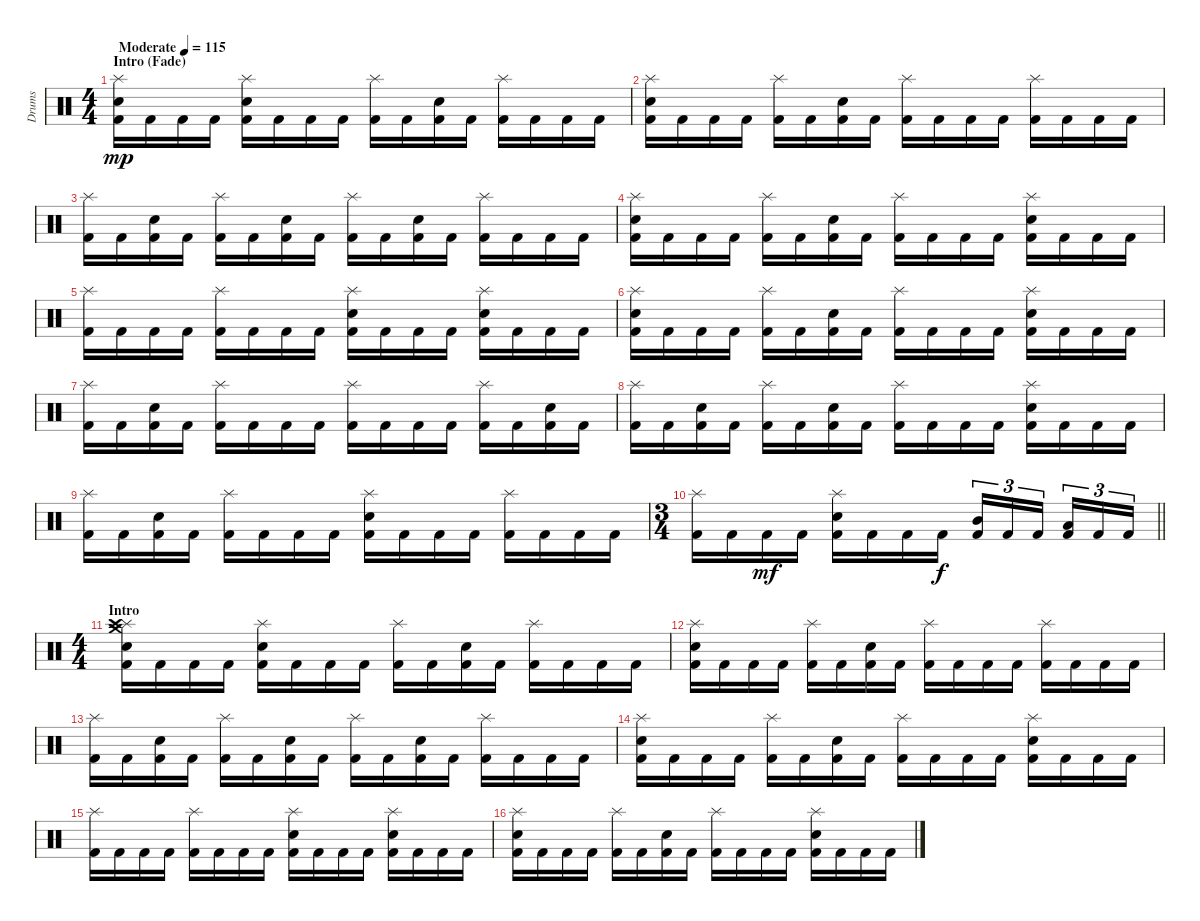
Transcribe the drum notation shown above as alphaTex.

\track ("Drums" "Drums") {instrument percussion}
\staff {score}
\articulation defaults
\ts (4 4)
\section ("" "Intro (Fade)")
\tempo (115 "Moderate")
\clef neutral
\ks c
("Splash (hit)" "Snare (hit) 2" "Kick (hit) 2").16{dy mp volume 0} "Kick (hit) 2".16{volume 3} "Kick (hit) 2".16 "Kick (hit) 2".16 ("Splash (hit)" "Snare (hit) 2" "Kick (hit) 2").16 "Kick (hit) 2".16 "Kick (hit) 2".16 "Kick (hit) 2".16 ("Splash (hit)" "Kick (hit) 2").16 "Kick (hit) 2".16 ("Snare (hit) 2" "Kick (hit) 2").16 "Kick (hit) 2".16 ("Splash (hit)" "Kick (hit) 2").16 "Kick (hit) 2".16 "Kick (hit) 2".16 "Kick (hit) 2".16 |
("Splash (hit)" "Snare (hit) 2" "Kick (hit) 2").16 "Kick (hit) 2".16 "Kick (hit) 2".16 "Kick (hit) 2".16 ("Splash (hit)" "Kick (hit) 2").16 "Kick (hit) 2".16 ("Snare (hit) 2" "Kick (hit) 2").16 "Kick (hit) 2".16 ("Splash (hit)" "Kick (hit) 2").16 "Kick (hit) 2".16 "Kick (hit) 2".16 "Kick (hit) 2".16 ("Splash (hit)" "Kick (hit) 2").16 "Kick (hit) 2".16 "Kick (hit) 2".16 "Kick (hit) 2".16 |
("Splash (hit)" "Kick (hit) 2").16 "Kick (hit) 2".16 ("Snare (hit) 2" "Kick (hit) 2").16 "Kick (hit) 2".16 ("Splash (hit)" "Kick (hit) 2").16 "Kick (hit) 2".16 ("Snare (hit) 2" "Kick (hit) 2").16 "Kick (hit) 2".16 ("Splash (hit)" "Kick (hit) 2").16 "Kick (hit) 2".16 ("Snare (hit) 2" "Kick (hit) 2").16 "Kick (hit) 2".16 ("Splash (hit)" "Kick (hit) 2").16 "Kick (hit) 2".16 "Kick (hit) 2".16 "Kick (hit) 2".16 |
("Splash (hit)" "Snare (hit) 2" "Kick (hit) 2").16 "Kick (hit) 2".16 "Kick (hit) 2".16 "Kick (hit) 2".16 ("Splash (hit)" "Kick (hit) 2").16 "Kick (hit) 2".16 ("Snare (hit) 2" "Kick (hit) 2").16 "Kick (hit) 2".16 ("Splash (hit)" "Kick (hit) 2").16 "Kick (hit) 2".16 "Kick (hit) 2".16 "Kick (hit) 2".16 ("Splash (hit)" "Snare (hit) 2" "Kick (hit) 2").16 "Kick (hit) 2".16 "Kick (hit) 2".16 "Kick (hit) 2".16 |
("Splash (hit)" "Kick (hit) 2").16{volume 6} "Kick (hit) 2".16 "Kick (hit) 2".16 "Kick (hit) 2".16 ("Splash (hit)" "Kick (hit) 2").16 "Kick (hit) 2".16 "Kick (hit) 2".16 "Kick (hit) 2".16 ("Splash (hit)" "Snare (hit) 2" "Kick (hit) 2").16 "Kick (hit) 2".16 "Kick (hit) 2".16 "Kick (hit) 2".16 ("Splash (hit)" "Snare (hit) 2" "Kick (hit) 2").16 "Kick (hit) 2".16 "Kick (hit) 2".16 "Kick (hit) 2".16 |
("Splash (hit)" "Snare (hit) 2" "Kick (hit) 2").16 "Kick (hit) 2".16 "Kick (hit) 2".16 "Kick (hit) 2".16 ("Splash (hit)" "Kick (hit) 2").16 "Kick (hit) 2".16 ("Snare (hit) 2" "Kick (hit) 2").16 "Kick (hit) 2".16 ("Splash (hit)" "Kick (hit) 2").16 "Kick (hit) 2".16 "Kick (hit) 2".16 "Kick (hit) 2".16 ("Splash (hit)" "Snare (hit) 2" "Kick (hit) 2").16 "Kick (hit) 2".16 "Kick (hit) 2".16 "Kick (hit) 2".16 |
("Splash (hit)" "Kick (hit) 2").16 "Kick (hit) 2".16 ("Snare (hit) 2" "Kick (hit) 2").16 "Kick (hit) 2".16 ("Splash (hit)" "Kick (hit) 2").16 "Kick (hit) 2".16 "Kick (hit) 2".16 "Kick (hit) 2".16 ("Splash (hit)" "Kick (hit) 2").16 "Kick (hit) 2".16 "Kick (hit) 2".16 "Kick (hit) 2".16 ("Splash (hit)" "Kick (hit) 2").16 "Kick (hit) 2".16 ("Snare (hit) 2" "Kick (hit) 2").16 "Kick (hit) 2".16 |
("Splash (hit)" "Kick (hit) 2").16 "Kick (hit) 2".16 ("Snare (hit) 2" "Kick (hit) 2").16 "Kick (hit) 2".16 ("Splash (hit)" "Kick (hit) 2").16 "Kick (hit) 2".16 ("Snare (hit) 2" "Kick (hit) 2").16 "Kick (hit) 2".16 ("Splash (hit)" "Kick (hit) 2").16 "Kick (hit) 2".16 "Kick (hit) 2".16 "Kick (hit) 2".16 ("Splash (hit)" "Snare (hit) 2" "Kick (hit) 2").16 "Kick (hit) 2".16 "Kick (hit) 2".16 "Kick (hit) 2".16 |
("Splash (hit)" "Kick (hit) 2").16{volume 13} "Kick (hit) 2".16 ("Snare (hit) 2" "Kick (hit) 2").16 "Kick (hit) 2".16 ("Splash (hit)" "Kick (hit) 2").16 "Kick (hit) 2".16 "Kick (hit) 2".16 "Kick (hit) 2".16 ("Splash (hit)" "Snare (hit) 2" "Kick (hit) 2").16 "Kick (hit) 2".16 "Kick (hit) 2".16 "Kick (hit) 2".16 ("Splash (hit)" "Kick (hit) 2").16 "Kick (hit) 2".16 "Kick (hit) 2".16 "Kick (hit) 2".16 |
\ts (3 4)
\barLineRight lightlight
("Splash (hit)" "Kick (hit) 2").16 "Kick (hit) 2".16 "Kick (hit) 2".16{dy mf} "Kick (hit) 2".16 ("Splash (hit)" "Snare (hit) 2" "Kick (hit) 2").16 "Kick (hit) 2".16 "Kick (hit) 2".16 "Kick (hit) 2".16{dy f} ("Mid Tom (hit)" "Kick (hit) 2").16{tu (3 2)} "Kick (hit) 2".16{tu (3 2)} "Kick (hit) 2".16{tu (3 2) beam splitsecondary} ("Low Tom (hit)" "Kick (hit) 2").16{tu (3 2)} "Kick (hit) 2".16{tu (3 2)} "Kick (hit) 2".16{tu (3 2)} |
\ts (4 4)
\section ("" "Intro")
("Splash (hit)" "Crash medium (hit)" "Crash high (hit)" "Snare (hit) 2" "Kick (hit) 2").16 "Kick (hit) 2".16 "Kick (hit) 2".16 "Kick (hit) 2".16 ("Splash (hit)" "Snare (hit) 2" "Kick (hit) 2").16 "Kick (hit) 2".16 "Kick (hit) 2".16 "Kick (hit) 2".16 ("Splash (hit)" "Kick (hit) 2").16 "Kick (hit) 2".16 ("Snare (hit) 2" "Kick (hit) 2").16 "Kick (hit) 2".16 ("Splash (hit)" "Kick (hit) 2").16 "Kick (hit) 2".16 "Kick (hit) 2".16 "Kick (hit) 2".16 |
("Splash (hit)" "Snare (hit) 2" "Kick (hit) 2").16 "Kick (hit) 2".16 "Kick (hit) 2".16 "Kick (hit) 2".16 ("Splash (hit)" "Kick (hit) 2").16 "Kick (hit) 2".16 ("Snare (hit) 2" "Kick (hit) 2").16 "Kick (hit) 2".16 ("Splash (hit)" "Kick (hit) 2").16 "Kick (hit) 2".16 "Kick (hit) 2".16 "Kick (hit) 2".16 ("Splash (hit)" "Kick (hit) 2").16 "Kick (hit) 2".16 "Kick (hit) 2".16 "Kick (hit) 2".16 |
("Splash (hit)" "Kick (hit) 2").16 "Kick (hit) 2".16 ("Snare (hit) 2" "Kick (hit) 2").16 "Kick (hit) 2".16 ("Splash (hit)" "Kick (hit) 2").16 "Kick (hit) 2".16 ("Snare (hit) 2" "Kick (hit) 2").16 "Kick (hit) 2".16 ("Splash (hit)" "Kick (hit) 2").16 "Kick (hit) 2".16 ("Snare (hit) 2" "Kick (hit) 2").16 "Kick (hit) 2".16 ("Splash (hit)" "Kick (hit) 2").16 "Kick (hit) 2".16 "Kick (hit) 2".16 "Kick (hit) 2".16 |
("Splash (hit)" "Snare (hit) 2" "Kick (hit) 2").16 "Kick (hit) 2".16 "Kick (hit) 2".16 "Kick (hit) 2".16 ("Splash (hit)" "Kick (hit) 2").16 "Kick (hit) 2".16 ("Snare (hit) 2" "Kick (hit) 2").16 "Kick (hit) 2".16 ("Splash (hit)" "Kick (hit) 2").16 "Kick (hit) 2".16 "Kick (hit) 2".16 "Kick (hit) 2".16 ("Splash (hit)" "Snare (hit) 2" "Kick (hit) 2").16 "Kick (hit) 2".16 "Kick (hit) 2".16 "Kick (hit) 2".16 |
("Splash (hit)" "Kick (hit) 2").16 "Kick (hit) 2".16 "Kick (hit) 2".16 "Kick (hit) 2".16 ("Splash (hit)" "Kick (hit) 2").16 "Kick (hit) 2".16 "Kick (hit) 2".16 "Kick (hit) 2".16 ("Splash (hit)" "Snare (hit) 2" "Kick (hit) 2").16 "Kick (hit) 2".16 "Kick (hit) 2".16 "Kick (hit) 2".16 ("Splash (hit)" "Snare (hit) 2" "Kick (hit) 2").16 "Kick (hit) 2".16 "Kick (hit) 2".16 "Kick (hit) 2".16 |
("Splash (hit)" "Snare (hit) 2" "Kick (hit) 2").16 "Kick (hit) 2".16 "Kick (hit) 2".16 "Kick (hit) 2".16 ("Splash (hit)" "Kick (hit) 2").16 "Kick (hit) 2".16 ("Snare (hit) 2" "Kick (hit) 2").16 "Kick (hit) 2".16 ("Splash (hit)" "Kick (hit) 2").16 "Kick (hit) 2".16 "Kick (hit) 2".16 "Kick (hit) 2".16 ("Splash (hit)" "Snare (hit) 2" "Kick (hit) 2").16 "Kick (hit) 2".16 "Kick (hit) 2".16 "Kick (hit) 2".16
